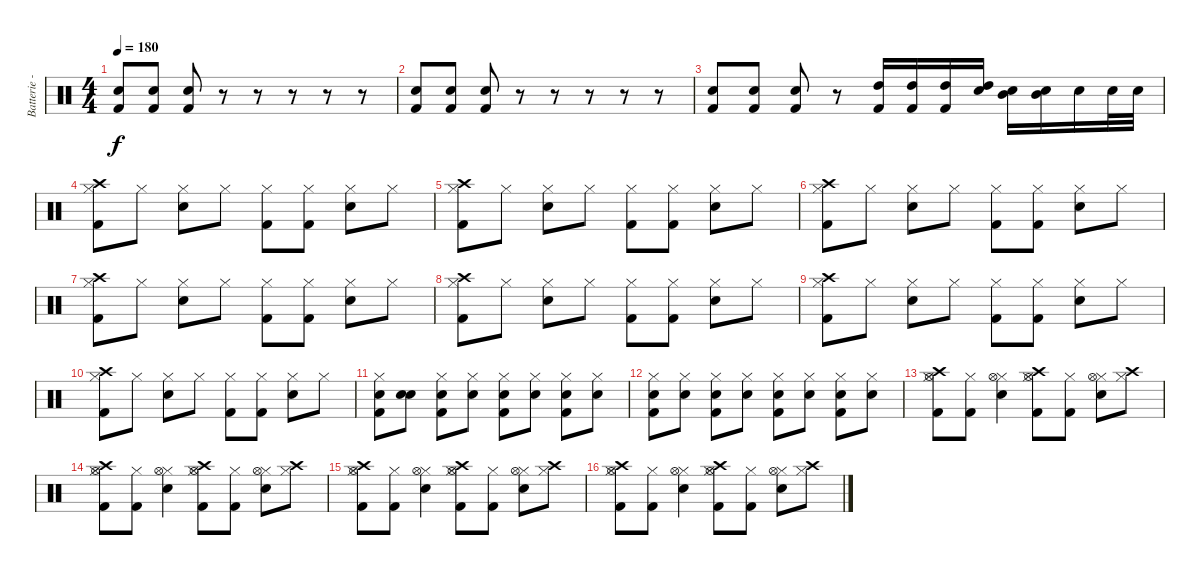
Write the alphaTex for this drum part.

\track ("Batterie - Stevo" "Batterie -") {instrument percussion}
\staff {score}
\articulation defaults
\ts (4 4)
\tempo 180
\clef neutral
\ks c
("Electric Snare (hit)" "Kick (hit) 2").8{dy f} ("Electric Snare (hit)" "Kick (hit) 2").8 ("Electric Snare (hit)" "Kick (hit) 2").8 r.8 r.8 r.8 r.8 r.8 |
("Electric Snare (hit)" "Kick (hit) 2").8 ("Electric Snare (hit)" "Kick (hit) 2").8 ("Electric Snare (hit)" "Kick (hit) 2").8 r.8 r.8 r.8 r.8 r.8 |
("Electric Snare (hit)" "Kick (hit) 2").8 ("Electric Snare (hit)" "Kick (hit) 2").8 ("Electric Snare (hit)" "Kick (hit) 2").8 r.8 ("High Tom (hit)" "Kick (hit) 2").16 ("High Tom (hit)" "Kick (hit) 2").16 ("High Tom (hit)" "Kick (hit) 2").16 ("High Tom (hit)" "Electric Snare (hit)").16 ("Mid Tom (hit)" "Electric Snare (hit)").16 ("Mid Tom (hit)" "Electric Snare (hit)").16 "Electric Snare (hit)".16 "Electric Snare (hit)".32 "Electric Snare (hit)".32 |
("Hi-Hat (closed)" "Kick (hit) 2" "Crash high (hit)").8 "Hi-Hat (closed)".8 ("Hi-Hat (closed)" "Electric Snare (hit)").8 "Hi-Hat (closed)".8 ("Hi-Hat (closed)" "Kick (hit) 2").8 ("Hi-Hat (closed)" "Kick (hit) 2").8 ("Hi-Hat (closed)" "Electric Snare (hit)").8 "Hi-Hat (closed)".8 |
("Hi-Hat (closed)" "Kick (hit) 2" "Crash high (hit)").8 "Hi-Hat (closed)".8 ("Hi-Hat (closed)" "Electric Snare (hit)").8 "Hi-Hat (closed)".8 ("Hi-Hat (closed)" "Kick (hit) 2").8 ("Hi-Hat (closed)" "Kick (hit) 2").8 ("Hi-Hat (closed)" "Electric Snare (hit)").8 "Hi-Hat (closed)".8 |
("Hi-Hat (closed)" "Kick (hit) 2" "Crash high (hit)").8 "Hi-Hat (closed)".8 ("Hi-Hat (closed)" "Electric Snare (hit)").8 "Hi-Hat (closed)".8 ("Hi-Hat (closed)" "Kick (hit) 2").8 ("Hi-Hat (closed)" "Kick (hit) 2").8 ("Hi-Hat (closed)" "Electric Snare (hit)").8 "Hi-Hat (closed)".8 |
("Hi-Hat (closed)" "Kick (hit) 2" "Crash high (hit)").8 "Hi-Hat (closed)".8 ("Hi-Hat (closed)" "Electric Snare (hit)").8 "Hi-Hat (closed)".8 ("Hi-Hat (closed)" "Kick (hit) 2").8 ("Hi-Hat (closed)" "Kick (hit) 2").8 ("Hi-Hat (closed)" "Electric Snare (hit)").8 "Hi-Hat (closed)".8 |
("Hi-Hat (closed)" "Kick (hit) 2" "Crash high (hit)").8 "Hi-Hat (closed)".8 ("Hi-Hat (closed)" "Electric Snare (hit)").8 "Hi-Hat (closed)".8 ("Hi-Hat (closed)" "Kick (hit) 2").8 ("Hi-Hat (closed)" "Kick (hit) 2").8 ("Hi-Hat (closed)" "Electric Snare (hit)").8 "Hi-Hat (closed)".8 |
("Hi-Hat (closed)" "Kick (hit) 2" "Crash high (hit)").8 "Hi-Hat (closed)".8 ("Hi-Hat (closed)" "Electric Snare (hit)").8 "Hi-Hat (closed)".8 ("Hi-Hat (closed)" "Kick (hit) 2").8 ("Hi-Hat (closed)" "Kick (hit) 2").8 ("Hi-Hat (closed)" "Electric Snare (hit)").8 "Hi-Hat (closed)".8 |
("Hi-Hat (closed)" "Kick (hit) 2" "Crash high (hit)").8 "Hi-Hat (closed)".8 ("Hi-Hat (closed)" "Electric Snare (hit)").8 "Hi-Hat (closed)".8 ("Hi-Hat (closed)" "Kick (hit) 2").8 ("Hi-Hat (closed)" "Kick (hit) 2").8 ("Hi-Hat (closed)" "Electric Snare (hit)").8 "Hi-Hat (closed)".8 |
("Hi-Hat (closed)" "Electric Snare (hit)" "Kick (hit) 2").8 ("Snare (hit)" "Electric Snare (hit)").8 ("Hi-Hat (closed)" "Electric Snare (hit)" "Kick (hit) 2").8 ("Hi-Hat (closed)" "Electric Snare (hit)").8 ("Hi-Hat (closed)" "Electric Snare (hit)" "Kick (hit) 2").8 ("Hi-Hat (closed)" "Electric Snare (hit)").8 ("Hi-Hat (closed)" "Electric Snare (hit)" "Kick (hit) 2").8 ("Hi-Hat (closed)" "Electric Snare (hit)").8 |
("Hi-Hat (closed)" "Electric Snare (hit)" "Kick (hit) 2").8 ("Hi-Hat (closed)" "Electric Snare (hit)").8 ("Hi-Hat (closed)" "Electric Snare (hit)" "Kick (hit) 2").8 ("Hi-Hat (closed)" "Electric Snare (hit)").8 ("Hi-Hat (closed)" "Electric Snare (hit)" "Kick (hit) 2").8 ("Hi-Hat (closed)" "Electric Snare (hit)").8 ("Hi-Hat (closed)" "Electric Snare (hit)" "Kick (hit) 2").8 ("Hi-Hat (closed)" "Electric Snare (hit)").8 |
("Hi-Hat (closed)" "Kick (hit) 2" "Hi-Hat (open)" "Crash high (hit)").8 ("Hi-Hat (closed)" "Kick (hit) 2").8 ("Hi-Hat (closed)" "Electric Snare (hit)" "Hi-Hat (open)").4 ("Hi-Hat (closed)" "Kick (hit) 2" "Hi-Hat (open)" "Crash high (hit)").8 ("Hi-Hat (closed)" "Kick (hit) 2").8 ("Hi-Hat (closed)" "Electric Snare (hit)" "Hi-Hat (open)").8 ("Hi-Hat (closed)" "Crash high (hit)").8 |
("Hi-Hat (closed)" "Kick (hit) 2" "Hi-Hat (open)" "Crash high (hit)").8 ("Hi-Hat (closed)" "Kick (hit) 2").8 ("Hi-Hat (closed)" "Electric Snare (hit)" "Hi-Hat (open)").4 ("Hi-Hat (closed)" "Kick (hit) 2" "Hi-Hat (open)" "Crash high (hit)").8 ("Hi-Hat (closed)" "Kick (hit) 2").8 ("Hi-Hat (closed)" "Electric Snare (hit)" "Hi-Hat (open)").8 ("Hi-Hat (closed)" "Crash high (hit)").8 |
("Hi-Hat (closed)" "Kick (hit) 2" "Hi-Hat (open)" "Crash high (hit)").8 ("Hi-Hat (closed)" "Kick (hit) 2").8 ("Hi-Hat (closed)" "Electric Snare (hit)" "Hi-Hat (open)").4 ("Hi-Hat (closed)" "Kick (hit) 2" "Hi-Hat (open)" "Crash high (hit)").8 ("Hi-Hat (closed)" "Kick (hit) 2").8 ("Hi-Hat (closed)" "Electric Snare (hit)" "Hi-Hat (open)").8 ("Hi-Hat (closed)" "Crash high (hit)").8 |
("Hi-Hat (closed)" "Kick (hit) 2" "Hi-Hat (open)" "Crash high (hit)").8 ("Hi-Hat (closed)" "Kick (hit) 2").8 ("Hi-Hat (closed)" "Electric Snare (hit)" "Hi-Hat (open)").4 ("Hi-Hat (closed)" "Kick (hit) 2" "Hi-Hat (open)" "Crash high (hit)").8 ("Hi-Hat (closed)" "Kick (hit) 2").8 ("Hi-Hat (closed)" "Electric Snare (hit)" "Hi-Hat (open)").8 ("Hi-Hat (closed)" "Crash high (hit)").8
